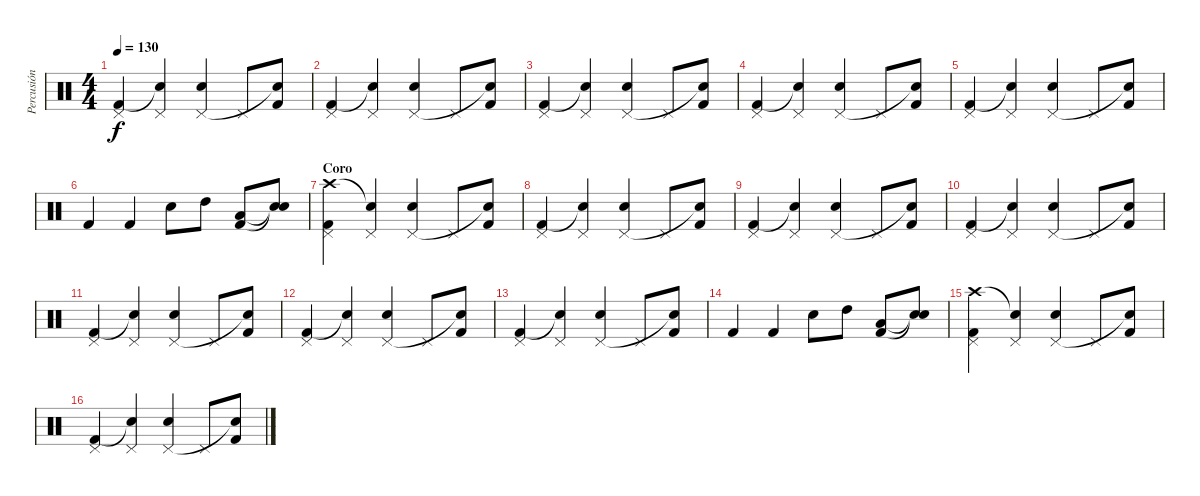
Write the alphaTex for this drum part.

\track ("Percusión" "Percusión") {instrument percussion}
\staff {score}
\articulation defaults
\ts (4 4)
\tempo 130
\clef neutral
\ks c
("Kick (hit) 2" "Pedal Hi-Hat (hit)").4{dy f} ("Snare (hit)"{t} "Pedal Hi-Hat (hit)").4 ("Snare (hit) 2" "Pedal Hi-Hat (hit)").4 "Pedal Hi-Hat (hit)".8 ("Kick (hit) 2" "Snare (hit)"{t}).8 |
("Kick (hit) 2" "Pedal Hi-Hat (hit)").4 ("Snare (hit)"{t} "Pedal Hi-Hat (hit)").4 ("Snare (hit) 2" "Pedal Hi-Hat (hit)").4 "Pedal Hi-Hat (hit)".8 ("Kick (hit) 2" "Snare (hit)"{t}).8 |
("Kick (hit) 2" "Pedal Hi-Hat (hit)").4 ("Snare (hit)"{t} "Pedal Hi-Hat (hit)").4 ("Snare (hit) 2" "Pedal Hi-Hat (hit)").4 "Pedal Hi-Hat (hit)".8 ("Kick (hit) 2" "Snare (hit)"{t}).8 |
("Kick (hit) 2" "Pedal Hi-Hat (hit)").4 ("Snare (hit)"{t} "Pedal Hi-Hat (hit)").4 ("Snare (hit) 2" "Pedal Hi-Hat (hit)").4 "Pedal Hi-Hat (hit)".8 ("Kick (hit) 2" "Snare (hit)"{t}).8 |
("Kick (hit) 2" "Pedal Hi-Hat (hit)").4 ("Snare (hit)"{t} "Pedal Hi-Hat (hit)").4 ("Snare (hit) 2" "Pedal Hi-Hat (hit)").4{volume 14} "Pedal Hi-Hat (hit)".8 ("Kick (hit) 2" "Snare (hit)"{t}).8 |
"Kick (hit) 2".4 "Kick (hit) 2".4 "Snare (hit) 2".8 "High Tom (hit)".8 ("Kick (hit) 2" "Low Tom (hit)").8 ("Snare (hit)"{t} "Snare (hit)"{t}).8 |
\section ("" "Coro")
("Crash high (hit)" "Kick (hit) 2" "Pedal Hi-Hat (hit)").4 ("Snare (hit)"{t} "Pedal Hi-Hat (hit)").4 ("Snare (hit) 2" "Pedal Hi-Hat (hit)").4 "Pedal Hi-Hat (hit)".8 ("Kick (hit) 2" "Snare (hit)"{t}).8 |
("Kick (hit) 2" "Pedal Hi-Hat (hit)").4 ("Snare (hit)"{t} "Pedal Hi-Hat (hit)").4 ("Snare (hit) 2" "Pedal Hi-Hat (hit)").4 "Pedal Hi-Hat (hit)".8 ("Kick (hit) 2" "Snare (hit)"{t}).8 |
("Kick (hit) 2" "Pedal Hi-Hat (hit)").4 ("Snare (hit)"{t} "Pedal Hi-Hat (hit)").4 ("Snare (hit) 2" "Pedal Hi-Hat (hit)").4 "Pedal Hi-Hat (hit)".8 ("Kick (hit) 2" "Snare (hit)"{t}).8 |
("Kick (hit) 2" "Pedal Hi-Hat (hit)").4 ("Snare (hit)"{t} "Pedal Hi-Hat (hit)").4 ("Snare (hit) 2" "Pedal Hi-Hat (hit)").4 "Pedal Hi-Hat (hit)".8 ("Kick (hit) 2" "Snare (hit)"{t}).8 |
("Kick (hit) 2" "Pedal Hi-Hat (hit)").4 ("Snare (hit)"{t} "Pedal Hi-Hat (hit)").4 ("Snare (hit) 2" "Pedal Hi-Hat (hit)").4 "Pedal Hi-Hat (hit)".8 ("Kick (hit) 2" "Snare (hit)"{t}).8 |
("Kick (hit) 2" "Pedal Hi-Hat (hit)").4 ("Snare (hit)"{t} "Pedal Hi-Hat (hit)").4 ("Snare (hit) 2" "Pedal Hi-Hat (hit)").4 "Pedal Hi-Hat (hit)".8 ("Kick (hit) 2" "Snare (hit)"{t}).8 |
("Kick (hit) 2" "Pedal Hi-Hat (hit)").4 ("Snare (hit)"{t} "Pedal Hi-Hat (hit)").4 ("Snare (hit) 2" "Pedal Hi-Hat (hit)").4 "Pedal Hi-Hat (hit)".8 ("Kick (hit) 2" "Snare (hit)"{t}).8 |
"Kick (hit) 2".4 "Kick (hit) 2".4 "Snare (hit) 2".8 "High Tom (hit)".8 ("Kick (hit) 2" "Low Tom (hit)").8 ("Snare (hit)"{t} "Snare (hit)"{t}).8 |
("Crash high (hit)" "Kick (hit) 2" "Pedal Hi-Hat (hit)").4 ("Snare (hit)"{t} "Pedal Hi-Hat (hit)").4 ("Snare (hit) 2" "Pedal Hi-Hat (hit)").4 "Pedal Hi-Hat (hit)".8 ("Kick (hit) 2" "Snare (hit)"{t}).8 |
("Kick (hit) 2" "Pedal Hi-Hat (hit)").4 ("Snare (hit)"{t} "Pedal Hi-Hat (hit)").4 ("Snare (hit) 2" "Pedal Hi-Hat (hit)").4 "Pedal Hi-Hat (hit)".8 ("Kick (hit) 2" "Snare (hit)"{t}).8
